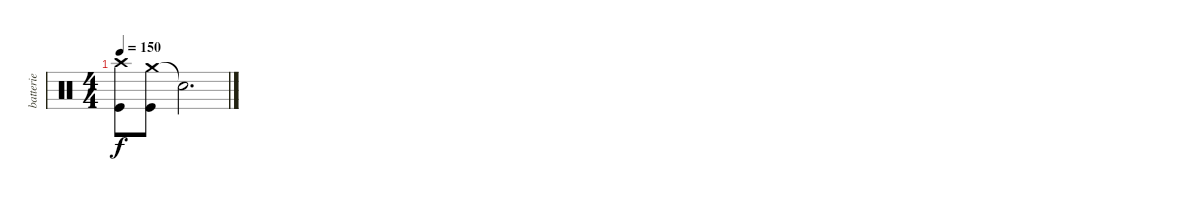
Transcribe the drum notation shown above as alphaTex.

\track ("batterie" "batterie") {instrument percussion}
\staff {score}
\articulation defaults
\ts (4 4)
\tempo 150
\clef neutral
\ks c
("Crash high (hit)" "Kick (hit)").8{dy f} ("Crash medium (hit)" "Kick (hit)").8 "Snare (hit)"{t}.2{d}
